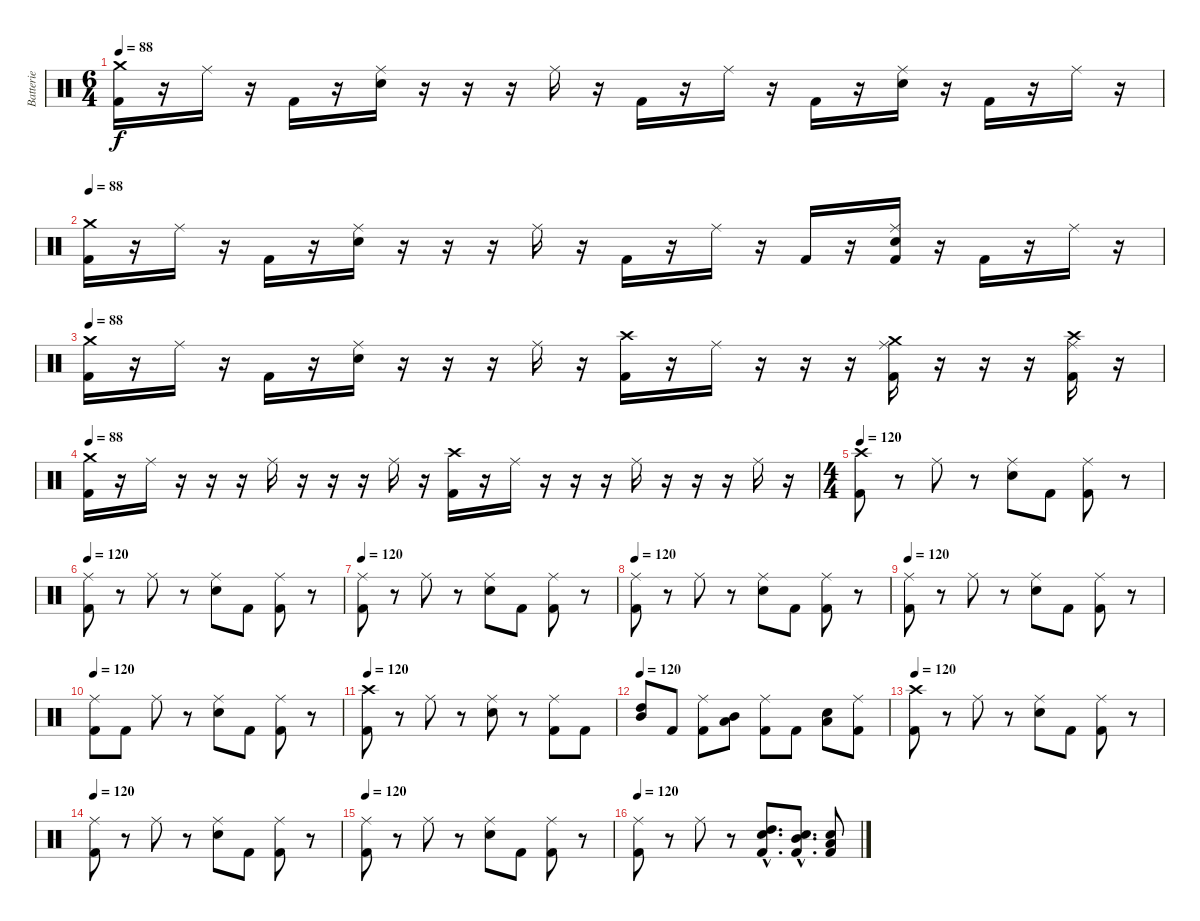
\track ("Batterie" "Batterie") {instrument percussion}
\staff {score}
\articulation defaults
\ts (6 4)
\tempo 100
\tempo 88
\clef neutral
\ks c
("Crash medium (hit)" "Kick (hit) 2").16{dy f} r.16 "Ride (middle)".16 r.16 "Kick (hit) 2".16 r.16 ("Ride (middle)" "Electric Snare (hit)").16 r.16 r.16 r.16 "Ride (middle)".16 r.16 "Kick (hit) 2".16 r.16 "Ride (middle)".16 r.16 "Kick (hit) 2".16 r.16 ("Ride (middle)" "Electric Snare (hit)").16 r.16 "Kick (hit) 2".16 r.16 "Ride (middle)".16 r.16 |
\tempo 100
\tempo 88
("Crash medium (hit)" "Kick (hit) 2").16 r.16 "Ride (middle)".16 r.16 "Kick (hit) 2".16 r.16 ("Ride (middle)" "Electric Snare (hit)").16 r.16 r.16 r.16 "Ride (middle)".16 r.16 "Kick (hit) 2".16 r.16 "Ride (middle)".16 r.16 "Kick (hit) 2".16 r.16 ("Ride (middle)" "Electric Snare (hit)" "Kick (hit) 2").16 r.16 "Kick (hit) 2".16 r.16 "Ride (middle)".16 r.16 |
\tempo 100
\tempo 88
("Crash medium (hit)" "Kick (hit) 2").16 r.16 "Ride (middle)".16 r.16 "Kick (hit) 2".16 r.16 ("Ride (middle)" "Electric Snare (hit)").16 r.16 r.16 r.16 "Ride (middle)".16 r.16 ("Crash high (hit)" "Kick (hit) 2").16 r.16 "Ride (middle)".16 r.16 r.16 r.16 ("Crash medium (hit)" "Ride (middle)" "Kick (hit) 2").16 r.16 r.16 r.16 ("Crash high (hit)" "Ride (middle)" "Kick (hit) 2").16 r.16 |
\tempo 100
\tempo 88
("Crash medium (hit)" "Kick (hit) 2").16 r.16 "Ride (middle)".16 r.16 r.16 r.16 "Ride (middle)".16 r.16 r.16 r.16 "Ride (middle)".16 r.16 ("Crash high (hit)" "Kick (hit) 2").16 r.16 "Ride (middle)".16 r.16 r.16 r.16 "Ride (middle)".16 r.16 r.16 r.16 "Ride (middle)".16 r.16 |
\ts (4 4)
\tempo 120
("Crash high (hit)" "Kick (hit) 2").8 r.8 "Ride (middle)".8 r.8 ("Ride (middle)" "Electric Snare (hit)").8 "Kick (hit) 2".8 ("Ride (middle)" "Kick (hit) 2").8 r.8 |
\tempo 120
("Ride (middle)" "Kick (hit) 2").8 r.8 "Ride (middle)".8 r.8 ("Ride (middle)" "Electric Snare (hit)").8 "Kick (hit) 2".8 ("Ride (middle)" "Kick (hit) 2").8 r.8 |
\tempo 120
("Ride (middle)" "Kick (hit) 2").8 r.8 "Ride (middle)".8 r.8 ("Ride (middle)" "Electric Snare (hit)").8 "Kick (hit) 2".8 ("Ride (middle)" "Kick (hit) 2").8 r.8 |
\tempo 120
("Ride (middle)" "Kick (hit) 2").8 r.8 "Ride (middle)".8 r.8 ("Ride (middle)" "Electric Snare (hit)").8 "Kick (hit) 2".8 ("Ride (middle)" "Kick (hit) 2").8 r.8 |
\tempo 120
("Ride (middle)" "Kick (hit) 2").8 r.8 "Ride (middle)".8 r.8 ("Ride (middle)" "Electric Snare (hit)").8 "Kick (hit) 2".8 ("Ride (middle)" "Kick (hit) 2").8 r.8 |
\tempo 120
("Ride (middle)" "Kick (hit) 2").8 "Kick (hit) 2".8 "Ride (middle)".8 r.8 ("Ride (middle)" "Electric Snare (hit)").8 "Kick (hit) 2".8 ("Ride (middle)" "Kick (hit) 2").8 r.8 |
\tempo 120
("Crash high (hit)" "Kick (hit) 2").8 r.8 "Ride (middle)".8 r.8 ("Ride (middle)" "Electric Snare (hit)").8 r.8 ("Ride (middle)" "Kick (hit) 2").8 "Kick (hit) 2".8 |
\tempo 120
("Mid Tom (hit)" "High Tom (hit)").8 "Kick (hit) 2".8 ("Ride (middle)" "Kick (hit) 2").8 ("Low Tom (hit)" "Mid Tom (hit)").8 ("Ride (middle)" "Kick (hit) 2").8 "Kick (hit) 2".8 ("Low Tom (hit)" "Electric Snare (hit)").8 ("Ride (middle)" "Kick (hit) 2").8 |
\tempo 120
("Crash high (hit)" "Kick (hit) 2").8 r.8 "Ride (middle)".8 r.8 ("Ride (middle)" "Electric Snare (hit)").8 "Kick (hit) 2".8 ("Ride (middle)" "Kick (hit) 2").8 r.8 |
\tempo 120
("Ride (middle)" "Kick (hit) 2").8 r.8 "Ride (middle)".8 r.8 ("Ride (middle)" "Electric Snare (hit)").8 "Kick (hit) 2".8 ("Ride (middle)" "Kick (hit) 2").8 r.8 |
\tempo 120
("Ride (middle)" "Kick (hit) 2").8 r.8 "Ride (middle)".8 r.8 ("Ride (middle)" "Electric Snare (hit)").8 "Kick (hit) 2".8 ("Ride (middle)" "Kick (hit) 2").8 r.8 |
\tempo 120
("Ride (middle)" "Kick (hit) 2").8 r.8 "Ride (middle)".8 r.8 ("High Tom (hit)"{hac} "Electric Snare (hit)"{hac} "Kick (hit) 2"{hac}).8{d} ("Mid Tom (hit)"{hac} "Electric Snare (hit)"{hac} "Kick (hit) 2"{hac}).8{d} ("Low Tom (hit)" "Electric Snare (hit)" "Kick (hit) 2").8
